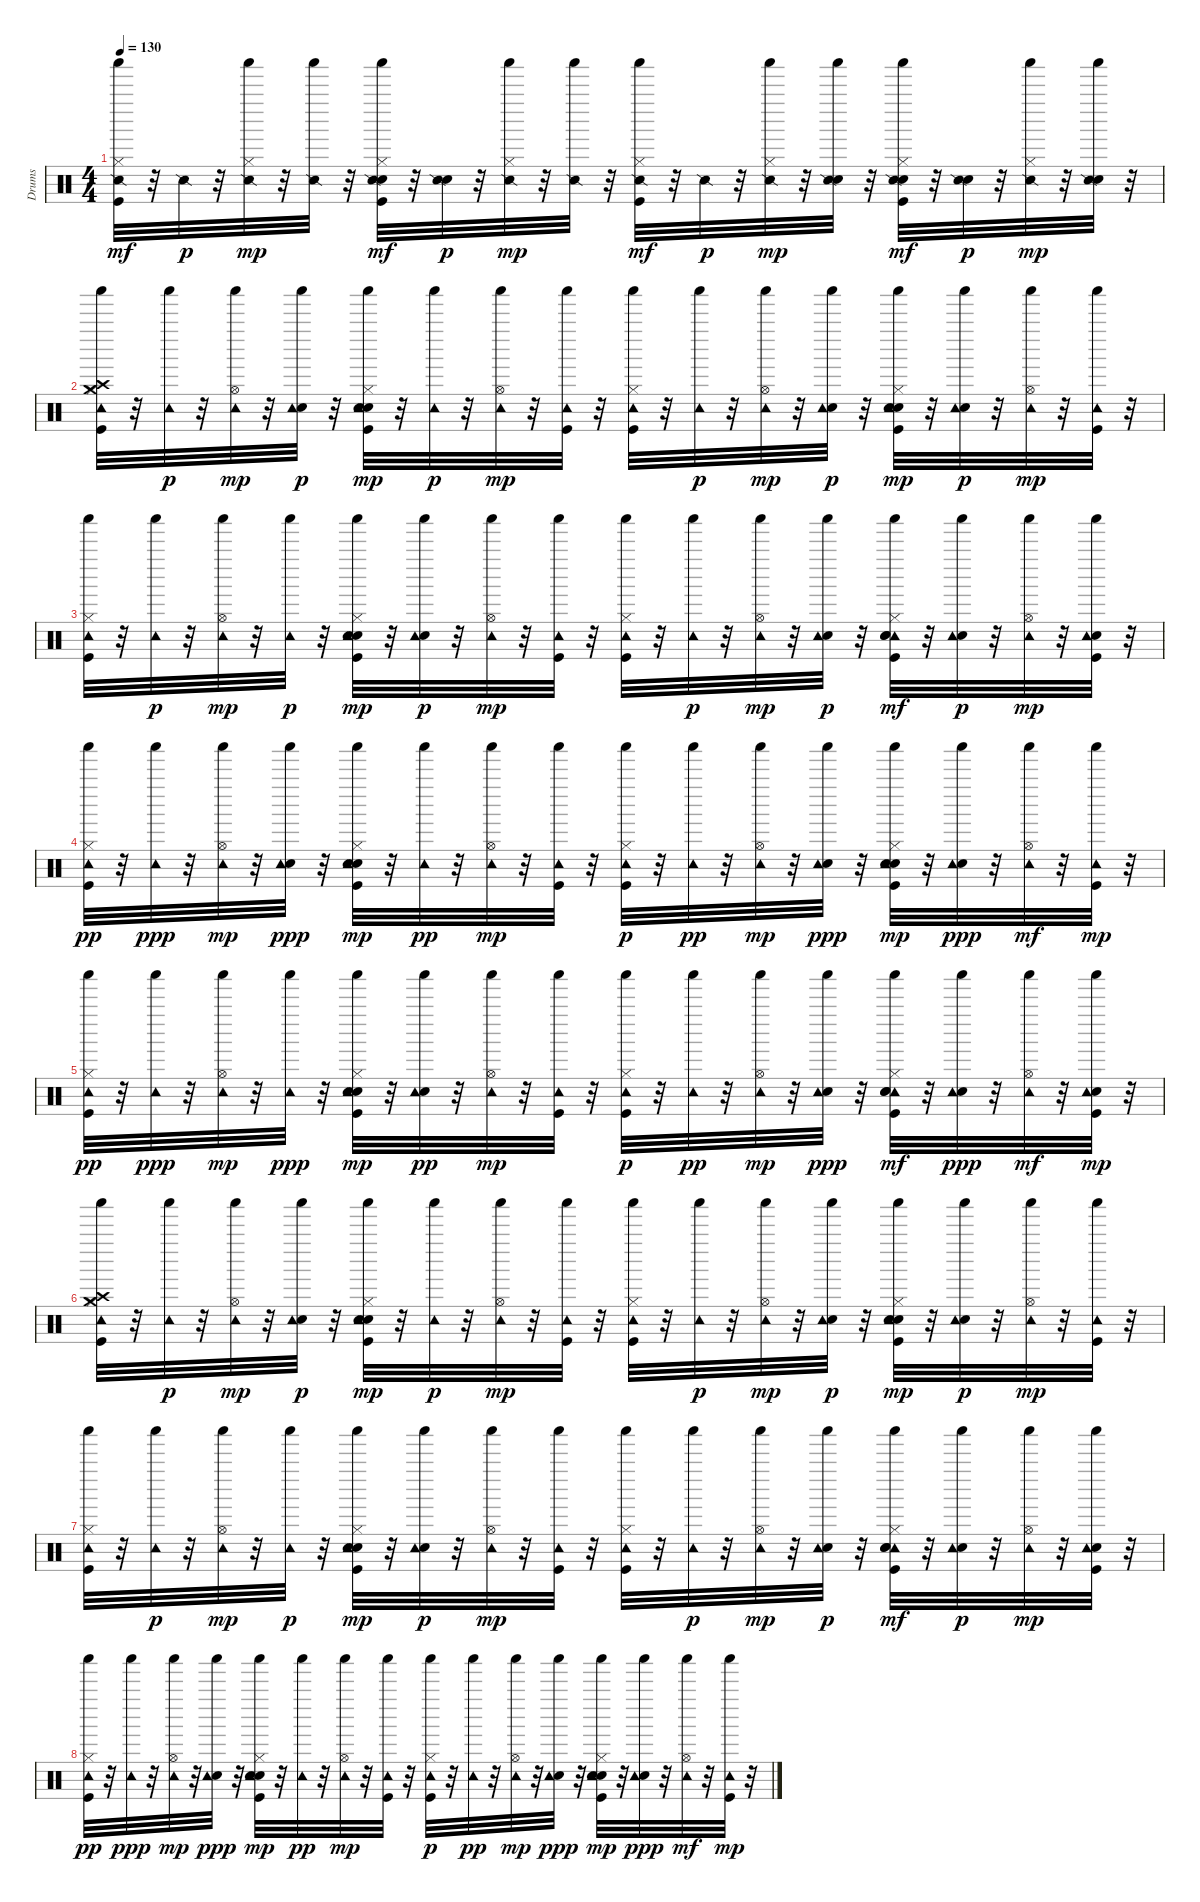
\track ("Drums" "Drums") {instrument percussion}
\staff {score}
\articulation defaults
\ts (4 4)
\tempo 130
\clef neutral
\ks c
("Kick (hit)" "Hi-Hat (closed)" "Shaker (hit)" "Snare (side stick) 2").32{dy mf} r.32 "Snare (side stick) 2".32{dy p} r.32 ("Hi-Hat (closed)" "Shaker (hit)" "Snare (side stick) 2").32{dy mp} r.32 ("Shaker (hit)" "Snare (side stick) 2").32 r.32 ("Kick (hit)" "Hi-Hat (closed)" "Shaker (hit)" "Snare (hit) 2" "Snare (side stick) 2").32{dy mf} r.32 ("Electric Snare (hit)" "Snare (side stick) 2").32{dy p} r.32 ("Hi-Hat (closed)" "Shaker (hit)" "Snare (side stick) 2").32{dy mp} r.32 ("Shaker (hit)" "Snare (side stick) 2").32 r.32 ("Kick (hit)" "Hi-Hat (closed)" "Shaker (hit)" "Snare (side stick) 2").32{dy mf} r.32 "Snare (side stick) 2".32{dy p} r.32 ("Hi-Hat (closed)" "Shaker (hit)" "Snare (side stick) 2").32{dy mp} r.32 ("Electric Snare (hit)" "Shaker (hit)" "Snare (side stick) 2").32 r.32 ("Kick (hit)" "Hi-Hat (closed)" "Shaker (hit)" "Snare (hit) 2" "Snare (side stick) 2").32{dy mf} r.32 ("Electric Snare (hit)" "Snare (side stick) 2").32{dy p} r.32 ("Hi-Hat (closed)" "Shaker (hit)" "Snare (side stick) 2").32{dy mp} r.32 ("Electric Snare (hit)" "Shaker (hit)" "Snare (side stick) 2").32 r.32 |
("Kick (hit)" "Hi-Hat (closed)" "Crash high (hit)" "Crash medium (hit)" "Tambourine (hit)" "Shaker (hit)").32 r.32 ("Tambourine (hit)" "Shaker (hit)").32{dy p} r.32 ("Tambourine (hit)" "Hi-Hat (open)" "Shaker (hit)").32{dy mp} r.32 ("Electric Snare (hit)" "Tambourine (hit)" "Shaker (hit)").32{dy p} r.32 ("Kick (hit)" "Hi-Hat (closed)" "Hand Clap (hit)" "Tambourine (hit)" "Shaker (hit)" "Snare (hit) 2").32{dy mp} r.32 ("Tambourine (hit)" "Shaker (hit)").32{dy p} r.32 ("Tambourine (hit)" "Hi-Hat (open)" "Shaker (hit)").32{dy mp} r.32 ("Tambourine (hit)" "Shaker (hit)" "Kick (hit)").32 r.32 ("Kick (hit)" "Hi-Hat (closed)" "Tambourine (hit)" "Shaker (hit)").32 r.32 ("Tambourine (hit)" "Shaker (hit)").32{dy p} r.32 ("Tambourine (hit)" "Hi-Hat (open)" "Shaker (hit)").32{dy mp} r.32 ("Electric Snare (hit)" "Tambourine (hit)" "Shaker (hit)").32{dy p} r.32 ("Kick (hit)" "Hi-Hat (closed)" "Hand Clap (hit)" "Tambourine (hit)" "Shaker (hit)" "Snare (hit) 2").32{dy mp} r.32 ("Electric Snare (hit)" "Tambourine (hit)" "Shaker (hit)").32{dy p} r.32 ("Tambourine (hit)" "Hi-Hat (open)" "Shaker (hit)").32{dy mp} r.32 ("Tambourine (hit)" "Shaker (hit)" "Kick (hit)").32 r.32 |
("Kick (hit)" "Hi-Hat (closed)" "Tambourine (hit)" "Shaker (hit)").32 r.32 ("Tambourine (hit)" "Shaker (hit)").32{dy p} r.32 ("Tambourine (hit)" "Hi-Hat (open)" "Shaker (hit)").32{dy mp} r.32 ("Tambourine (hit)" "Shaker (hit)").32{dy p} r.32 ("Kick (hit)" "Hi-Hat (closed)" "Hand Clap (hit)" "Tambourine (hit)" "Shaker (hit)" "Snare (hit) 2").32{dy mp} r.32 ("Electric Snare (hit)" "Tambourine (hit)" "Shaker (hit)").32{dy p} r.32 ("Tambourine (hit)" "Hi-Hat (open)" "Shaker (hit)").32{dy mp} r.32 ("Tambourine (hit)" "Shaker (hit)" "Kick (hit)").32 r.32 ("Kick (hit)" "Hi-Hat (closed)" "Tambourine (hit)" "Shaker (hit)").32 r.32 ("Tambourine (hit)" "Shaker (hit)").32{dy p} r.32 ("Tambourine (hit)" "Hi-Hat (open)" "Shaker (hit)").32{dy mp} r.32 ("Electric Snare (hit)" "Tambourine (hit)" "Shaker (hit)").32{dy p} r.32 ("Kick (hit)" "Hi-Hat (closed)" "Tambourine (hit)" "Shaker (hit)" "Snare (hit) 2" "Hand Clap (hit)").32{dy mf} r.32 ("Electric Snare (hit)" "Tambourine (hit)" "Shaker (hit)").32{dy p} r.32 ("Tambourine (hit)" "Hi-Hat (open)" "Shaker (hit)").32{dy mp} r.32 ("Electric Snare (hit)" "Tambourine (hit)" "Shaker (hit)" "Kick (hit)").32 r.32 |
("Kick (hit)" "Shaker (hit)" "Hi-Hat (closed)" "Tambourine (hit)").32{dy pp} r.32 ("Shaker (hit)" "Tambourine (hit)").32{dy ppp} r.32 ("Shaker (hit)" "Hi-Hat (open)" "Tambourine (hit)").32{dy mp} r.32 ("Shaker (hit)" "Electric Snare (hit)" "Tambourine (hit)").32{dy ppp} r.32 ("Kick (hit)" "Shaker (hit)" "Hi-Hat (closed)" "Hand Clap (hit)" "Tambourine (hit)" "Snare (hit) 2").32{dy mp} r.32 ("Shaker (hit)" "Tambourine (hit)").32{dy pp} r.32 ("Shaker (hit)" "Hi-Hat (open)" "Tambourine (hit)").32{dy mp} r.32 ("Shaker (hit)" "Tambourine (hit)" "Kick (hit)").32 r.32 ("Kick (hit)" "Shaker (hit)" "Hi-Hat (closed)" "Tambourine (hit)").32{dy p} r.32 ("Shaker (hit)" "Tambourine (hit)").32{dy pp} r.32 ("Shaker (hit)" "Hi-Hat (open)" "Tambourine (hit)").32{dy mp} r.32 ("Shaker (hit)" "Electric Snare (hit)" "Tambourine (hit)").32{dy ppp} r.32 ("Kick (hit)" "Shaker (hit)" "Hi-Hat (closed)" "Hand Clap (hit)" "Tambourine (hit)" "Snare (hit) 2").32{dy mp} r.32 ("Shaker (hit)" "Electric Snare (hit)" "Tambourine (hit)").32{dy ppp} r.32 ("Shaker (hit)" "Hi-Hat (open)" "Tambourine (hit)").32{dy mf} r.32 ("Shaker (hit)" "Tambourine (hit)" "Kick (hit)").32{dy mp} r.32 |
("Kick (hit)" "Shaker (hit)" "Hi-Hat (closed)" "Tambourine (hit)").32{dy pp} r.32 ("Shaker (hit)" "Tambourine (hit)").32{dy ppp} r.32 ("Shaker (hit)" "Hi-Hat (open)" "Tambourine (hit)").32{dy mp} r.32 ("Shaker (hit)" "Tambourine (hit)").32{dy ppp} r.32 ("Kick (hit)" "Shaker (hit)" "Hi-Hat (closed)" "Hand Clap (hit)" "Tambourine (hit)" "Snare (hit) 2").32{dy mp} r.32 ("Shaker (hit)" "Electric Snare (hit)" "Tambourine (hit)").32{dy pp} r.32 ("Shaker (hit)" "Hi-Hat (open)" "Tambourine (hit)").32{dy mp} r.32 ("Shaker (hit)" "Tambourine (hit)" "Kick (hit)").32 r.32 ("Kick (hit)" "Shaker (hit)" "Hi-Hat (closed)" "Tambourine (hit)").32{dy p} r.32 ("Shaker (hit)" "Tambourine (hit)").32{dy pp} r.32 ("Shaker (hit)" "Hi-Hat (open)" "Tambourine (hit)").32{dy mp} r.32 ("Shaker (hit)" "Electric Snare (hit)" "Tambourine (hit)").32{dy ppp} r.32 ("Kick (hit)" "Shaker (hit)" "Hi-Hat (closed)" "Tambourine (hit)" "Snare (hit) 2" "Hand Clap (hit)").32{dy mf} r.32 ("Shaker (hit)" "Electric Snare (hit)" "Tambourine (hit)").32{dy ppp} r.32 ("Shaker (hit)" "Hi-Hat (open)" "Tambourine (hit)").32{dy mf} r.32 ("Shaker (hit)" "Electric Snare (hit)" "Tambourine (hit)" "Kick (hit)").32{dy mp} r.32 |
("Kick (hit)" "Hi-Hat (closed)" "Crash high (hit)" "Crash medium (hit)" "Tambourine (hit)" "Shaker (hit)").32 r.32 ("Tambourine (hit)" "Shaker (hit)").32{dy p} r.32 ("Tambourine (hit)" "Hi-Hat (open)" "Shaker (hit)").32{dy mp} r.32 ("Electric Snare (hit)" "Tambourine (hit)" "Shaker (hit)").32{dy p} r.32 ("Kick (hit)" "Hi-Hat (closed)" "Hand Clap (hit)" "Tambourine (hit)" "Shaker (hit)" "Snare (hit) 2").32{dy mp} r.32 ("Tambourine (hit)" "Shaker (hit)").32{dy p} r.32 ("Tambourine (hit)" "Hi-Hat (open)" "Shaker (hit)").32{dy mp} r.32 ("Tambourine (hit)" "Shaker (hit)" "Kick (hit)").32 r.32 ("Kick (hit)" "Hi-Hat (closed)" "Tambourine (hit)" "Shaker (hit)").32 r.32 ("Tambourine (hit)" "Shaker (hit)").32{dy p} r.32 ("Tambourine (hit)" "Hi-Hat (open)" "Shaker (hit)").32{dy mp} r.32 ("Electric Snare (hit)" "Tambourine (hit)" "Shaker (hit)").32{dy p} r.32 ("Kick (hit)" "Hi-Hat (closed)" "Hand Clap (hit)" "Tambourine (hit)" "Shaker (hit)" "Snare (hit) 2").32{dy mp} r.32 ("Electric Snare (hit)" "Tambourine (hit)" "Shaker (hit)").32{dy p} r.32 ("Tambourine (hit)" "Hi-Hat (open)" "Shaker (hit)").32{dy mp} r.32 ("Tambourine (hit)" "Shaker (hit)" "Kick (hit)").32 r.32 |
("Kick (hit)" "Hi-Hat (closed)" "Tambourine (hit)" "Shaker (hit)").32 r.32 ("Tambourine (hit)" "Shaker (hit)").32{dy p} r.32 ("Tambourine (hit)" "Hi-Hat (open)" "Shaker (hit)").32{dy mp} r.32 ("Tambourine (hit)" "Shaker (hit)").32{dy p} r.32 ("Kick (hit)" "Hi-Hat (closed)" "Hand Clap (hit)" "Tambourine (hit)" "Shaker (hit)" "Snare (hit) 2").32{dy mp} r.32 ("Electric Snare (hit)" "Tambourine (hit)" "Shaker (hit)").32{dy p} r.32 ("Tambourine (hit)" "Hi-Hat (open)" "Shaker (hit)").32{dy mp} r.32 ("Tambourine (hit)" "Shaker (hit)" "Kick (hit)").32 r.32 ("Kick (hit)" "Hi-Hat (closed)" "Tambourine (hit)" "Shaker (hit)").32 r.32 ("Tambourine (hit)" "Shaker (hit)").32{dy p} r.32 ("Tambourine (hit)" "Hi-Hat (open)" "Shaker (hit)").32{dy mp} r.32 ("Electric Snare (hit)" "Tambourine (hit)" "Shaker (hit)").32{dy p} r.32 ("Kick (hit)" "Hi-Hat (closed)" "Tambourine (hit)" "Shaker (hit)" "Snare (hit) 2" "Hand Clap (hit)").32{dy mf} r.32 ("Electric Snare (hit)" "Tambourine (hit)" "Shaker (hit)").32{dy p} r.32 ("Tambourine (hit)" "Hi-Hat (open)" "Shaker (hit)").32{dy mp} r.32 ("Electric Snare (hit)" "Tambourine (hit)" "Shaker (hit)" "Kick (hit)").32 r.32 |
("Kick (hit)" "Shaker (hit)" "Hi-Hat (closed)" "Tambourine (hit)").32{dy pp} r.32 ("Shaker (hit)" "Tambourine (hit)").32{dy ppp} r.32 ("Shaker (hit)" "Hi-Hat (open)" "Tambourine (hit)").32{dy mp} r.32 ("Shaker (hit)" "Electric Snare (hit)" "Tambourine (hit)").32{dy ppp} r.32 ("Kick (hit)" "Shaker (hit)" "Hi-Hat (closed)" "Hand Clap (hit)" "Tambourine (hit)" "Snare (hit) 2").32{dy mp} r.32 ("Shaker (hit)" "Tambourine (hit)").32{dy pp} r.32 ("Shaker (hit)" "Hi-Hat (open)" "Tambourine (hit)").32{dy mp} r.32 ("Shaker (hit)" "Tambourine (hit)" "Kick (hit)").32 r.32 ("Kick (hit)" "Shaker (hit)" "Hi-Hat (closed)" "Tambourine (hit)").32{dy p} r.32 ("Shaker (hit)" "Tambourine (hit)").32{dy pp} r.32 ("Shaker (hit)" "Hi-Hat (open)" "Tambourine (hit)").32{dy mp} r.32 ("Shaker (hit)" "Electric Snare (hit)" "Tambourine (hit)").32{dy ppp} r.32 ("Kick (hit)" "Shaker (hit)" "Hi-Hat (closed)" "Hand Clap (hit)" "Tambourine (hit)" "Snare (hit) 2").32{dy mp} r.32 ("Shaker (hit)" "Electric Snare (hit)" "Tambourine (hit)").32{dy ppp} r.32 ("Shaker (hit)" "Hi-Hat (open)" "Tambourine (hit)").32{dy mf} r.32 ("Shaker (hit)" "Tambourine (hit)" "Kick (hit)").32{dy mp} r.32
